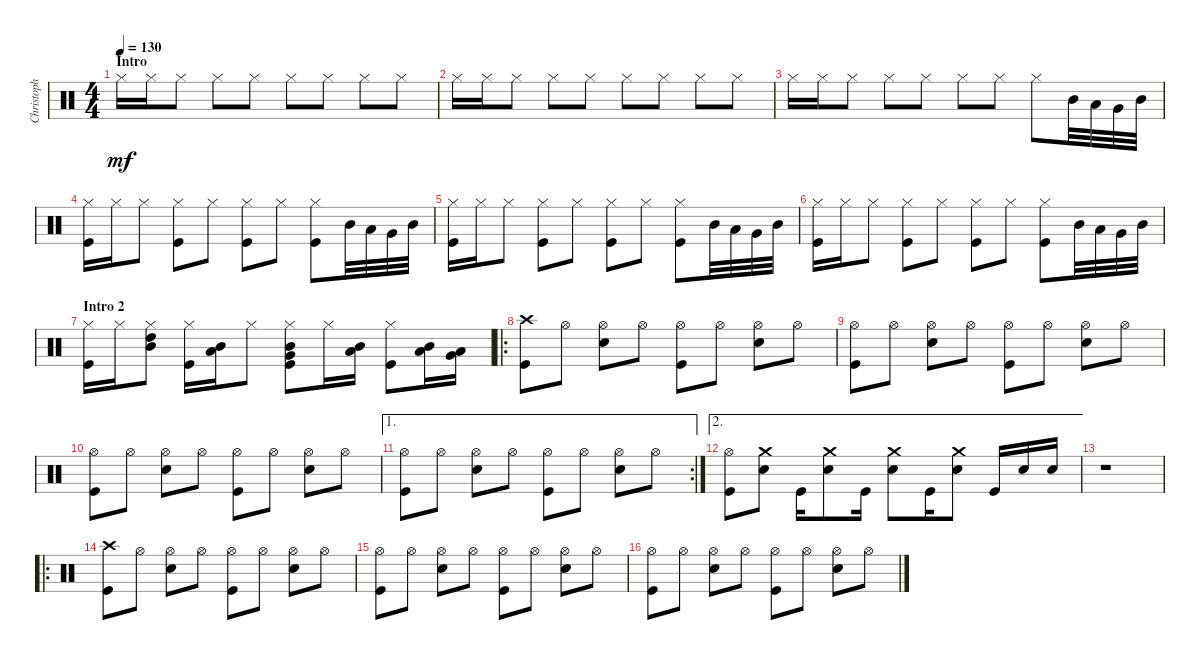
\track ("Christoph Schneider" "Christoph ") {instrument percussion}
\staff {score}
\articulation defaults
\ts (4 4)
\section ("" "Intro")
\tempo 130
\clef neutral
\ks c "Hi-Hat (closed)".16{dy mf} "Hi-Hat (closed)".16 "Hi-Hat (closed)".8 "Hi-Hat (closed)".8 "Hi-Hat (closed)".8 "Hi-Hat (closed)".8 "Hi-Hat (closed)".8 "Hi-Hat (closed)".8 "Hi-Hat (closed)".8
|
"Hi-Hat (closed)".16 "Hi-Hat (closed)".16 "Hi-Hat (closed)".8 "Hi-Hat (closed)".8 "Hi-Hat (closed)".8 "Hi-Hat (closed)".8 "Hi-Hat (closed)".8 "Hi-Hat (closed)".8 "Hi-Hat (closed)".8 |
"Hi-Hat (closed)".16 "Hi-Hat (closed)".16 "Hi-Hat (closed)".8 "Hi-Hat (closed)".8 "Hi-Hat (closed)".8 "Hi-Hat (closed)".8 "Hi-Hat (closed)".8 "Hi-Hat (closed)".8 "Mid Tom (hit)".32 "Low Tom (hit)".32 "Very Low Tom (hit)".32 "Mid Tom (hit)".32 |
("Hi-Hat (closed)" "Kick (hit)").16 "Hi-Hat (closed)".16 "Hi-Hat (closed)".8 ("Hi-Hat (closed)" "Kick (hit)").8 "Hi-Hat (closed)".8 ("Hi-Hat (closed)" "Kick (hit)").8 "Hi-Hat (closed)".8 ("Hi-Hat (closed)" "Kick (hit)").8 "Mid Tom (hit)".32 "Low Tom (hit)".32 "Very Low Tom (hit)".32 "Mid Tom (hit)".32 |
("Hi-Hat (closed)" "Kick (hit)").16 "Hi-Hat (closed)".16 "Hi-Hat (closed)".8 ("Hi-Hat (closed)" "Kick (hit)").8 "Hi-Hat (closed)".8 ("Hi-Hat (closed)" "Kick (hit)").8 "Hi-Hat (closed)".8 ("Hi-Hat (closed)" "Kick (hit)").8 "Mid Tom (hit)".32 "Low Tom (hit)".32 "Very Low Tom (hit)".32 "Mid Tom (hit)".32 |
("Hi-Hat (closed)" "Kick (hit)").16 "Hi-Hat (closed)".16 "Hi-Hat (closed)".8 ("Hi-Hat (closed)" "Kick (hit)").8 "Hi-Hat (closed)".8 ("Hi-Hat (closed)" "Kick (hit)").8 "Hi-Hat (closed)".8 ("Hi-Hat (closed)" "Kick (hit)").8 "Mid Tom (hit)".32 "Low Tom (hit)".32 "Very Low Tom (hit)".32 "Mid Tom (hit)".32 |
\section ("" "Intro 2")
("Hi-Hat (closed)" "Kick (hit)").16 "Hi-Hat (closed)".16 ("Hi-Hat (closed)" "High Tom (hit)" "Mid Tom (hit)").8 ("Hi-Hat (closed)" "Kick (hit)").16 ("Mid Tom (hit)" "Low Tom (hit)").16 "Hi-Hat (closed)".8 ("Hi-Hat (closed)" "Mid Tom (hit)" "Very Low Tom (hit)" "Kick (hit)").8 "Hi-Hat (closed)".16 ("Mid Tom (hit)" "Low Floor Tom (hit)").16 ("Hi-Hat (closed)" "Kick (hit)").8 ("Mid Tom (hit)" "Low Floor Tom (hit)").16 ("Low Tom (hit)" "Very Low Tom (hit)").16 |
\ro
("Crash high (hit)" "Kick (hit)").8 "Hi-Hat (open)".8 ("Hi-Hat (open)" "Snare (hit) 2").8 "Hi-Hat (open)".8 ("Hi-Hat (open)" "Kick (hit)").8 "Hi-Hat (open)".8 ("Hi-Hat (open)" "Snare (hit) 2").8 "Hi-Hat (open)".8 |
("Hi-Hat (open)" "Kick (hit)").8 "Hi-Hat (open)".8 ("Hi-Hat (open)" "Snare (hit) 2").8 "Hi-Hat (open)".8 ("Hi-Hat (open)" "Kick (hit)").8 "Hi-Hat (open)".8 ("Hi-Hat (open)" "Snare (hit) 2").8 "Hi-Hat (open)".8 |
("Hi-Hat (open)" "Kick (hit)").8 "Hi-Hat (open)".8 ("Hi-Hat (open)" "Snare (hit) 2").8 "Hi-Hat (open)".8 ("Hi-Hat (open)" "Kick (hit)").8 "Hi-Hat (open)".8 ("Hi-Hat (open)" "Snare (hit) 2").8 "Hi-Hat (open)".8 |
\ae 1
\rc 2
("Hi-Hat (open)" "Kick (hit)").8 "Hi-Hat (open)".8 ("Hi-Hat (open)" "Snare (hit) 2").8 "Hi-Hat (open)".8 ("Hi-Hat (open)" "Kick (hit)").8 "Hi-Hat (open)".8 ("Hi-Hat (open)" "Snare (hit) 2").8 "Hi-Hat (open)".8 |
\ae 2
("Hi-Hat (open)" "Kick (hit)").8 ("Crash medium (hit)" "Snare (hit) 2").8 "Kick (hit)".16 ("Crash medium (hit)" "Snare (hit) 2").8 "Kick (hit)".16 ("Crash medium (hit)" "Snare (hit) 2").8 "Kick (hit)".16 ("Crash medium (hit)" "Snare (hit) 2").8 "Kick (hit)".16 "Snare (hit) 2".16 "Snare (hit) 2".16 |
r.1 |
\ro
("Crash high (hit)" "Kick (hit)").8 "Hi-Hat (open)".8 ("Hi-Hat (open)" "Snare (hit) 2").8 "Hi-Hat (open)".8 ("Hi-Hat (open)" "Kick (hit)").8 "Hi-Hat (open)".8 ("Hi-Hat (open)" "Snare (hit) 2").8 "Hi-Hat (open)".8 |
("Hi-Hat (open)" "Kick (hit)").8 "Hi-Hat (open)".8 ("Hi-Hat (open)" "Snare (hit) 2").8 "Hi-Hat (open)".8 ("Hi-Hat (open)" "Kick (hit)").8 "Hi-Hat (open)".8 ("Hi-Hat (open)" "Snare (hit) 2").8 "Hi-Hat (open)".8 |
("Hi-Hat (open)" "Kick (hit)").8 "Hi-Hat (open)".8 ("Hi-Hat (open)" "Snare (hit) 2").8 "Hi-Hat (open)".8 ("Hi-Hat (open)" "Kick (hit)").8 "Hi-Hat (open)".8 ("Hi-Hat (open)" "Snare (hit) 2").8 "Hi-Hat (open)".8
